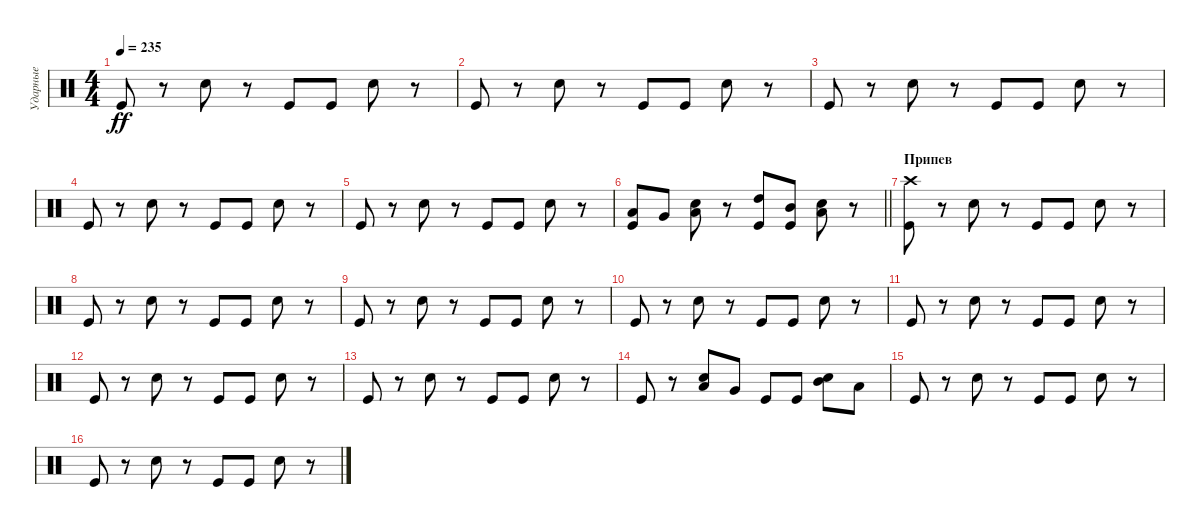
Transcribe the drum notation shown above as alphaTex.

\track ("Ударные" "Ударные") {instrument percussion}
\staff {score}
\articulation defaults
\ts (4 4)
\tempo 235
\clef neutral
\ks c "Kick (hit)".8{dy ff}
r.8 "Snare (hit) 2".8 r.8 "Kick (hit)".8 "Kick (hit)".8 "Snare (hit) 2".8 r.8 |
"Kick (hit)".8 r.8 "Snare (hit) 2".8 r.8 "Kick (hit)".8 "Kick (hit)".8 "Snare (hit) 2".8 r.8 |
"Kick (hit)".8 r.8 "Snare (hit) 2".8 r.8 "Kick (hit)".8 "Kick (hit)".8 "Snare (hit) 2".8 r.8 |
"Kick (hit)".8 r.8 "Snare (hit) 2".8 r.8 "Kick (hit)".8 "Kick (hit)".8 "Snare (hit) 2".8 r.8 |
"Kick (hit)".8 r.8 "Snare (hit) 2".8 r.8 "Kick (hit)".8 "Kick (hit)".8 "Snare (hit) 2".8 r.8 |
\barLineRight lightlight
("Kick (hit)" "Low Tom (hit)").8 "Very Low Tom (hit)".8 ("Snare (hit) 2" "Low Floor Tom (hit)").8 r.8 ("Kick (hit)" "High Tom (hit)").8 ("Kick (hit)" "Mid Tom (hit)").8 ("Snare (hit) 2" "Low Tom (hit)").8 r.8 |
\section ("" "Припев")
("Kick (hit)" "Crash high (hit)").8 r.8 "Snare (hit) 2".8 r.8 "Kick (hit)".8 "Kick (hit)".8 "Snare (hit) 2".8 r.8 |
"Kick (hit)".8 r.8 "Snare (hit) 2".8 r.8 "Kick (hit)".8 "Kick (hit)".8 "Snare (hit) 2".8 r.8 |
"Kick (hit)".8 r.8 "Snare (hit) 2".8 r.8 "Kick (hit)".8 "Kick (hit)".8 "Snare (hit) 2".8 r.8 |
"Kick (hit)".8 r.8 "Snare (hit) 2".8 r.8 "Kick (hit)".8 "Kick (hit)".8 "Snare (hit) 2".8 r.8 |
"Kick (hit)".8 r.8 "Snare (hit) 2".8 r.8 "Kick (hit)".8 "Kick (hit)".8 "Snare (hit) 2".8 r.8 |
"Kick (hit)".8 r.8 "Snare (hit) 2".8 r.8 "Kick (hit)".8 "Kick (hit)".8 "Snare (hit) 2".8 r.8 |
"Kick (hit)".8 r.8 "Snare (hit) 2".8 r.8 "Kick (hit)".8 "Kick (hit)".8 "Snare (hit) 2".8 r.8 |
"Kick (hit)".8 r.8 ("Snare (hit) 2" "Low Tom (hit)").8 "Very Low Tom (hit)".8 "Kick (hit)".8 "Kick (hit)".8 ("Snare (hit) 2" "Mid Tom (hit)").8 "Low Tom (hit)".8 |
"Kick (hit)".8 r.8 "Snare (hit) 2".8 r.8 "Kick (hit)".8 "Kick (hit)".8 "Snare (hit) 2".8 r.8 |
"Kick (hit)".8 r.8 "Snare (hit) 2".8 r.8 "Kick (hit)".8 "Kick (hit)".8 "Snare (hit) 2".8 r.8
